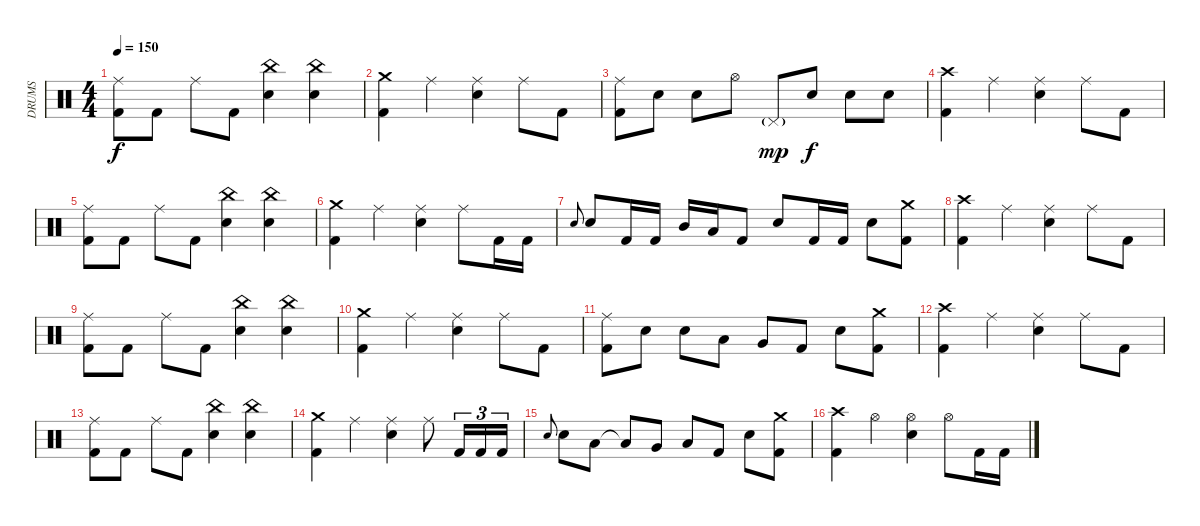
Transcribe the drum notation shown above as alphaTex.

\track ("DRUMS" "DRUMS") {instrument percussion}
\staff {score}
\articulation defaults
\ts (4 4)
\tempo 150
\clef neutral
\ks c
("Ride (middle)" "Kick (hit) 2").8{dy f} "Kick (hit) 2".8 "Ride (middle)".8 "Kick (hit) 2".8 ("China (hit)" "Snare (hit) 2").4 ("China (hit)" "Snare (hit) 2").4 |
("Crash medium (hit)" "Kick (hit) 2").4 "Ride (middle)".4 ("Ride (middle)" "Snare (hit) 2").4 "Ride (middle)".8 "Kick (hit) 2".8 |
("Ride (middle)" "Kick (hit) 2").8 "Snare (hit) 2".8 "Snare (hit) 2".8 "Hi-Hat (open)".8 "Pedal Hi-Hat (hit)"{g}.8{dy mp} "Snare (hit) 2".8{dy f} "Snare (hit) 2".8 "Snare (hit) 2".8 |
("Crash high (hit)" "Kick (hit) 2").4 "Ride (middle)".4 ("Ride (middle)" "Snare (hit) 2").4 "Ride (middle)".8 "Kick (hit) 2".8 |
("Ride (middle)" "Kick (hit) 2").8 "Kick (hit) 2".8 "Ride (middle)".8 "Kick (hit) 2".8 ("China (hit)" "Snare (hit) 2").4 ("China (hit)" "Snare (hit) 2").4 |
("Crash medium (hit)" "Kick (hit) 2").4 "Ride (middle)".4 ("Ride (middle)" "Snare (hit) 2").4 "Ride (middle)".8 "Kick (hit) 2".16 "Kick (hit) 2".16 |
"Snare (hit) 2".8{gr onbeat} "Snare (hit) 2".8 "Kick (hit) 2".16 "Kick (hit) 2".16 "Mid Tom (hit)".16 "Low Tom (hit)".16 "Kick (hit) 2".8 "Snare (hit) 2".8 "Kick (hit) 2".16 "Kick (hit) 2".16 "Snare (hit) 2".8 ("Crash medium (hit)" "Kick (hit) 2").8 |
("Crash high (hit)" "Kick (hit) 2").4 "Ride (middle)".4 ("Ride (middle)" "Snare (hit) 2").4 "Ride (middle)".8 "Kick (hit) 2".8 |
("Ride (middle)" "Kick (hit) 2").8 "Kick (hit) 2".8 "Ride (middle)".8 "Kick (hit) 2".8 ("China (hit)" "Snare (hit) 2").4 ("China (hit)" "Snare (hit) 2").4 |
("Crash medium (hit)" "Kick (hit) 2").4 "Ride (middle)".4 ("Ride (middle)" "Snare (hit) 2").4 "Ride (middle)".8 "Kick (hit) 2".8 |
("Ride (middle)" "Kick (hit) 2").8 "Snare (hit) 2".8 "Snare (hit) 2".8 "Low Tom (hit)".8 "Very Low Tom (hit)".8 "Kick (hit) 2".8 "Snare (hit) 2".8 ("Crash medium (hit)" "Kick (hit) 2").8 |
("Crash high (hit)" "Kick (hit) 2").4 "Ride (middle)".4 ("Ride (middle)" "Snare (hit) 2").4 "Ride (middle)".8 "Kick (hit) 2".8 |
("Ride (middle)" "Kick (hit) 2").8 "Kick (hit) 2".8 "Ride (middle)".8 "Kick (hit) 2".8 ("China (hit)" "Snare (hit) 2").4 ("China (hit)" "Snare (hit) 2").4 |
("Crash medium (hit)" "Kick (hit) 2").4 "Ride (middle)".4 ("Ride (middle)" "Snare (hit) 2").4 "Ride (middle)".8 "Kick (hit) 2".16{tu (3 2)} "Kick (hit) 2".16{tu (3 2)} "Kick (hit) 2".16{tu (3 2)} |
"Snare (hit) 2".8{gr onbeat} "Snare (hit) 2".8 "Low Tom (hit)".8 "Low Tom (hit)"{t}.8 "Very Low Tom (hit)".8 "Low Floor Tom (hit)".8 "Kick (hit) 2".8 "Snare (hit) 2".8 ("Crash medium (hit)" "Kick (hit) 2").8 |
("Crash high (hit)" "Kick (hit) 2").4 "Hi-Hat (open)".4 ("Hi-Hat (open)" "Snare (hit) 2").4 "Hi-Hat (open)".8 "Kick (hit) 2".16 "Kick (hit) 2".16
